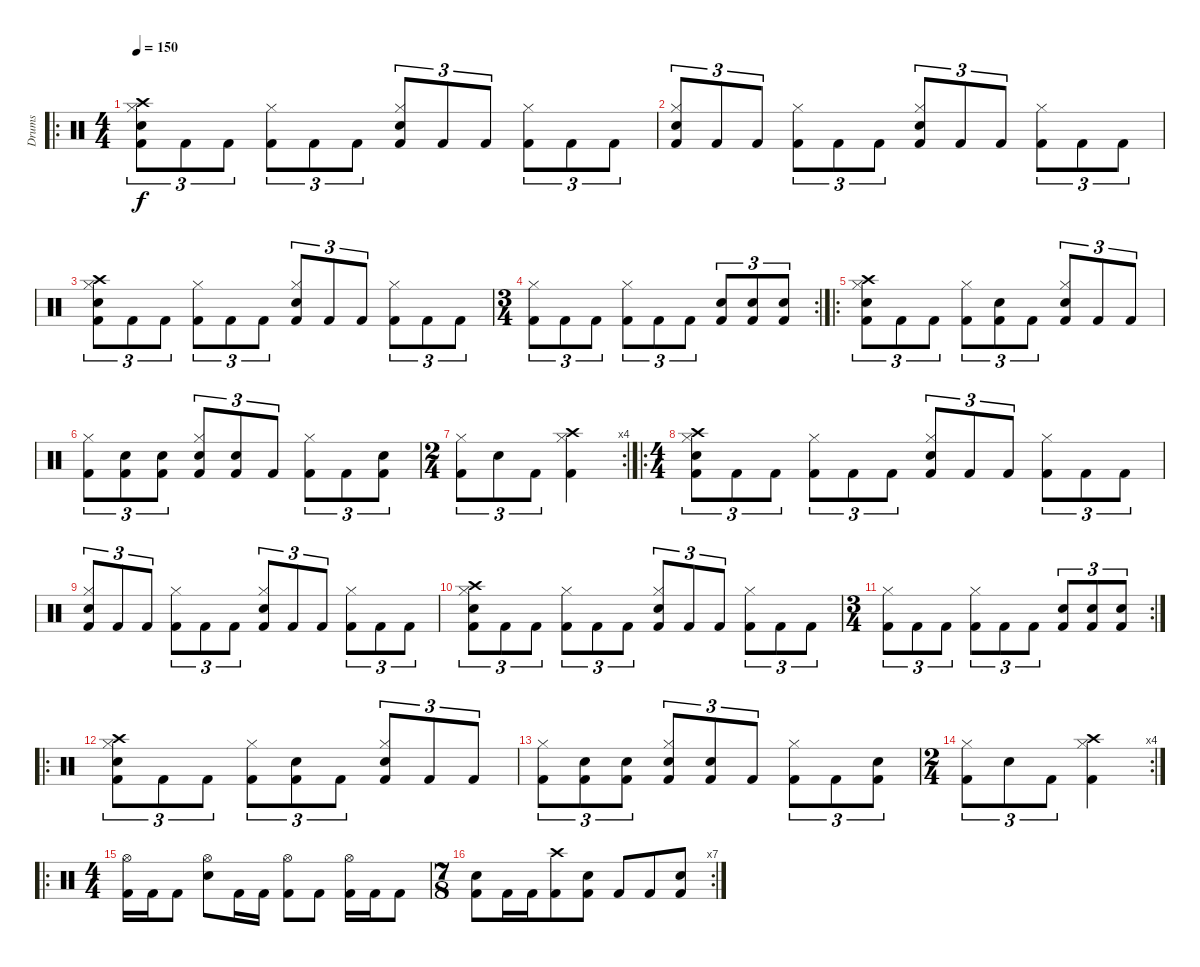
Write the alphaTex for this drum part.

\track ("Drums" "Drums") {instrument percussion}
\staff {score}
\articulation defaults
\ro
\ts (4 4)
\tempo 150
\clef neutral
\ks c
("Crash high (hit)" "Snare (hit) 2" "Hi-Hat (closed)" "Kick (hit) 2").8{tu (3 2) dy f} "Kick (hit) 2".8{tu (3 2)} "Kick (hit) 2".8{tu (3 2)} ("Hi-Hat (closed)" "Kick (hit) 2").8{tu (3 2)} "Kick (hit) 2".8{tu (3 2)} "Kick (hit) 2".8{tu (3 2)} ("Snare (hit) 2" "Hi-Hat (closed)" "Kick (hit) 2").8{tu (3 2)} "Kick (hit) 2".8{tu (3 2)} "Kick (hit) 2".8{tu (3 2)} ("Hi-Hat (closed)" "Kick (hit) 2").8{tu (3 2)} "Kick (hit) 2".8{tu (3 2)} "Kick (hit) 2".8{tu (3 2)} |
("Snare (hit) 2" "Hi-Hat (closed)" "Kick (hit) 2").8{tu (3 2)} "Kick (hit) 2".8{tu (3 2)} "Kick (hit) 2".8{tu (3 2)} ("Hi-Hat (closed)" "Kick (hit) 2").8{tu (3 2)} "Kick (hit) 2".8{tu (3 2)} "Kick (hit) 2".8{tu (3 2)} ("Snare (hit) 2" "Hi-Hat (closed)" "Kick (hit) 2").8{tu (3 2)} "Kick (hit) 2".8{tu (3 2)} "Kick (hit) 2".8{tu (3 2)} ("Hi-Hat (closed)" "Kick (hit) 2").8{tu (3 2)} "Kick (hit) 2".8{tu (3 2)} "Kick (hit) 2".8{tu (3 2)} |
("Crash high (hit)" "Snare (hit) 2" "Hi-Hat (closed)" "Kick (hit) 2").8{tu (3 2)} "Kick (hit) 2".8{tu (3 2)} "Kick (hit) 2".8{tu (3 2)} ("Hi-Hat (closed)" "Kick (hit) 2").8{tu (3 2)} "Kick (hit) 2".8{tu (3 2)} "Kick (hit) 2".8{tu (3 2)} ("Snare (hit) 2" "Hi-Hat (closed)" "Kick (hit) 2").8{tu (3 2)} "Kick (hit) 2".8{tu (3 2)} "Kick (hit) 2".8{tu (3 2)} ("Hi-Hat (closed)" "Kick (hit) 2").8{tu (3 2)} "Kick (hit) 2".8{tu (3 2)} "Kick (hit) 2".8{tu (3 2)} |
\rc 2
\ts (3 4)
("Hi-Hat (closed)" "Kick (hit) 2").8{tu (3 2)} "Kick (hit) 2".8{tu (3 2)} "Kick (hit) 2".8{tu (3 2)} ("Hi-Hat (closed)" "Kick (hit) 2").8{tu (3 2)} "Kick (hit) 2".8{tu (3 2)} "Kick (hit) 2".8{tu (3 2)} ("Snare (hit) 2" "Kick (hit) 2").8{tu (3 2)} ("Snare (hit) 2" "Kick (hit) 2").8{tu (3 2)} ("Snare (hit) 2" "Kick (hit) 2").8{tu (3 2)} |
\ro
("Crash high (hit)" "Snare (hit) 2" "Hi-Hat (closed)" "Kick (hit) 2").8{tu (3 2)} "Kick (hit) 2".8{tu (3 2)} "Kick (hit) 2".8{tu (3 2)} ("Hi-Hat (closed)" "Kick (hit) 2").8{tu (3 2)} ("Snare (hit) 2" "Kick (hit) 2").8{tu (3 2)} "Kick (hit) 2".8{tu (3 2)} ("Hi-Hat (closed)" "Snare (hit) 2" "Kick (hit) 2").8{tu (3 2)} "Kick (hit) 2".8{tu (3 2)} "Kick (hit) 2".8{tu (3 2)} |
("Hi-Hat (closed)" "Kick (hit) 2").8{tu (3 2)} ("Snare (hit) 2" "Kick (hit) 2").8{tu (3 2)} ("Snare (hit) 2" "Kick (hit) 2").8{tu (3 2)} ("Hi-Hat (closed)" "Snare (hit) 2" "Kick (hit) 2").8{tu (3 2)} ("Snare (hit) 2" "Kick (hit) 2").8{tu (3 2)} "Kick (hit) 2".8{tu (3 2)} ("Hi-Hat (closed)" "Kick (hit) 2").8{tu (3 2)} "Kick (hit) 2".8{tu (3 2)} ("Snare (hit) 2" "Kick (hit) 2").8{tu (3 2)} |
\rc 4
\ts (2 4)
("Hi-Hat (closed)" "Kick (hit) 2").8{tu (3 2)} "Snare (hit) 2".8{tu (3 2)} "Kick (hit) 2".8{tu (3 2)} ("Hi-Hat (closed)" "Crash high (hit)" "Kick (hit) 2").4 |
\ro
\ts (4 4)
("Crash high (hit)" "Snare (hit) 2" "Hi-Hat (closed)" "Kick (hit) 2").8{tu (3 2)} "Kick (hit) 2".8{tu (3 2)} "Kick (hit) 2".8{tu (3 2)} ("Hi-Hat (closed)" "Kick (hit) 2").8{tu (3 2)} "Kick (hit) 2".8{tu (3 2)} "Kick (hit) 2".8{tu (3 2)} ("Snare (hit) 2" "Hi-Hat (closed)" "Kick (hit) 2").8{tu (3 2)} "Kick (hit) 2".8{tu (3 2)} "Kick (hit) 2".8{tu (3 2)} ("Hi-Hat (closed)" "Kick (hit) 2").8{tu (3 2)} "Kick (hit) 2".8{tu (3 2)} "Kick (hit) 2".8{tu (3 2)} |
("Snare (hit) 2" "Hi-Hat (closed)" "Kick (hit) 2").8{tu (3 2)} "Kick (hit) 2".8{tu (3 2)} "Kick (hit) 2".8{tu (3 2)} ("Hi-Hat (closed)" "Kick (hit) 2").8{tu (3 2)} "Kick (hit) 2".8{tu (3 2)} "Kick (hit) 2".8{tu (3 2)} ("Snare (hit) 2" "Hi-Hat (closed)" "Kick (hit) 2").8{tu (3 2)} "Kick (hit) 2".8{tu (3 2)} "Kick (hit) 2".8{tu (3 2)} ("Hi-Hat (closed)" "Kick (hit) 2").8{tu (3 2)} "Kick (hit) 2".8{tu (3 2)} "Kick (hit) 2".8{tu (3 2)} |
("Crash high (hit)" "Snare (hit) 2" "Hi-Hat (closed)" "Kick (hit) 2").8{tu (3 2)} "Kick (hit) 2".8{tu (3 2)} "Kick (hit) 2".8{tu (3 2)} ("Hi-Hat (closed)" "Kick (hit) 2").8{tu (3 2)} "Kick (hit) 2".8{tu (3 2)} "Kick (hit) 2".8{tu (3 2)} ("Snare (hit) 2" "Hi-Hat (closed)" "Kick (hit) 2").8{tu (3 2)} "Kick (hit) 2".8{tu (3 2)} "Kick (hit) 2".8{tu (3 2)} ("Hi-Hat (closed)" "Kick (hit) 2").8{tu (3 2)} "Kick (hit) 2".8{tu (3 2)} "Kick (hit) 2".8{tu (3 2)} |
\rc 2
\ts (3 4)
("Hi-Hat (closed)" "Kick (hit) 2").8{tu (3 2)} "Kick (hit) 2".8{tu (3 2)} "Kick (hit) 2".8{tu (3 2)} ("Hi-Hat (closed)" "Kick (hit) 2").8{tu (3 2)} "Kick (hit) 2".8{tu (3 2)} "Kick (hit) 2".8{tu (3 2)} ("Snare (hit) 2" "Kick (hit) 2").8{tu (3 2)} ("Snare (hit) 2" "Kick (hit) 2").8{tu (3 2)} ("Snare (hit) 2" "Kick (hit) 2").8{tu (3 2)} |
\ro
("Crash high (hit)" "Snare (hit) 2" "Hi-Hat (closed)" "Kick (hit) 2").8{tu (3 2)} "Kick (hit) 2".8{tu (3 2)} "Kick (hit) 2".8{tu (3 2)} ("Hi-Hat (closed)" "Kick (hit) 2").8{tu (3 2)} ("Snare (hit) 2" "Kick (hit) 2").8{tu (3 2)} "Kick (hit) 2".8{tu (3 2)} ("Hi-Hat (closed)" "Snare (hit) 2" "Kick (hit) 2").8{tu (3 2)} "Kick (hit) 2".8{tu (3 2)} "Kick (hit) 2".8{tu (3 2)} |
("Hi-Hat (closed)" "Kick (hit) 2").8{tu (3 2)} ("Snare (hit) 2" "Kick (hit) 2").8{tu (3 2)} ("Snare (hit) 2" "Kick (hit) 2").8{tu (3 2)} ("Hi-Hat (closed)" "Snare (hit) 2" "Kick (hit) 2").8{tu (3 2)} ("Snare (hit) 2" "Kick (hit) 2").8{tu (3 2)} "Kick (hit) 2".8{tu (3 2)} ("Hi-Hat (closed)" "Kick (hit) 2").8{tu (3 2)} "Kick (hit) 2".8{tu (3 2)} ("Snare (hit) 2" "Kick (hit) 2").8{tu (3 2)} |
\rc 4
\ts (2 4)
("Hi-Hat (closed)" "Kick (hit) 2").8{tu (3 2)} "Snare (hit) 2".8{tu (3 2)} "Kick (hit) 2".8{tu (3 2)} ("Hi-Hat (closed)" "Crash high (hit)" "Kick (hit) 2").4 |
\ro
\ts (4 4)
("Hi-Hat (open)" "Kick (hit) 2").16 "Kick (hit) 2".16 "Kick (hit) 2".8 ("Hi-Hat (open)" "Snare (hit) 2").8 "Kick (hit) 2".16 "Kick (hit) 2".16 ("Hi-Hat (open)" "Kick (hit) 2").8 "Kick (hit) 2".8 ("Hi-Hat (open)" "Kick (hit) 2").16 "Kick (hit) 2".16 "Kick (hit) 2".8 |
\rc 7
\ts (7 8)
("Snare (hit) 2" "Kick (hit) 2").8 "Kick (hit) 2".16 "Kick (hit) 2".16 ("Crash high (hit)" "Kick (hit) 2").8 ("Snare (hit) 2" "Kick (hit) 2").8 "Kick (hit) 2".8 "Kick (hit) 2".8 ("Snare (hit) 2" "Kick (hit) 2").8
